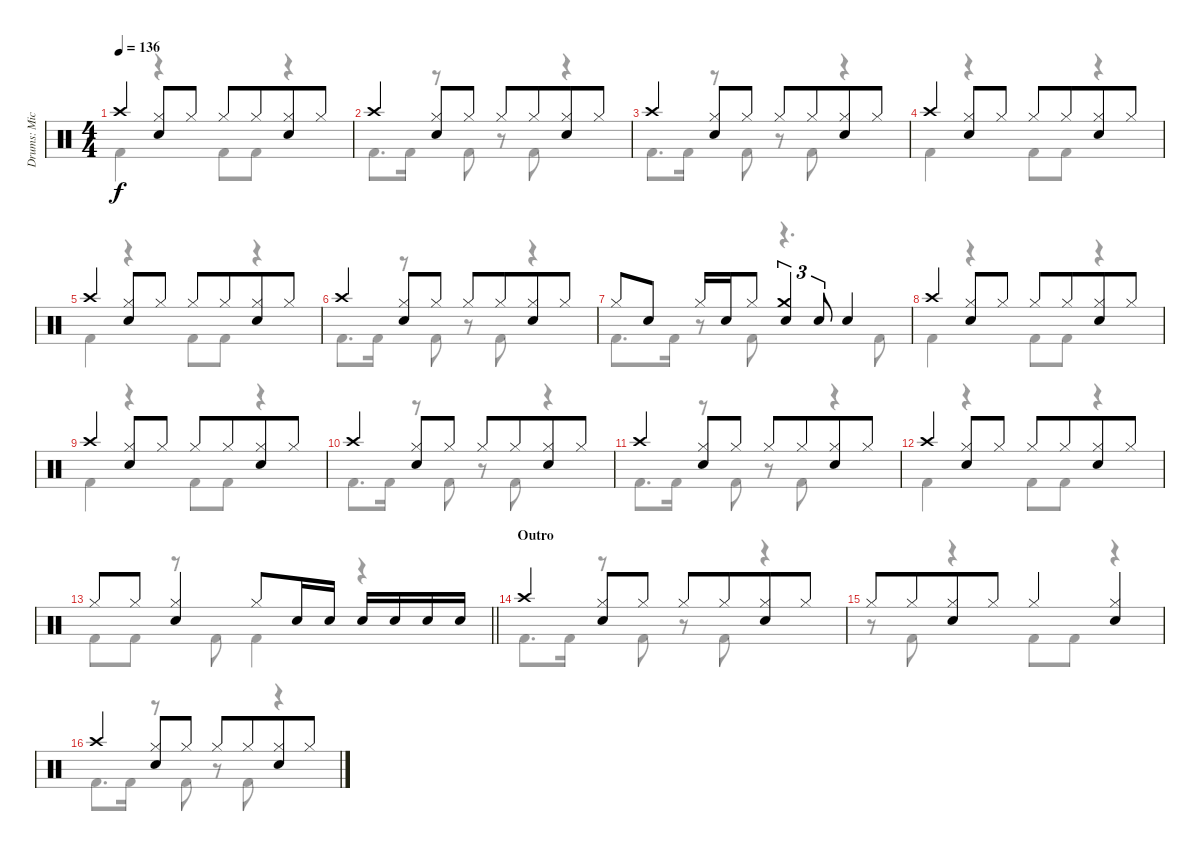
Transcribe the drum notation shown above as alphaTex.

\track ("Drums: Mick" "Drums: Mic") {instrument percussion}
\staff {score}
\articulation defaults
\voice
\ts (4 4)
\tempo 136
\clef neutral
\ks c "Crash high (hit)".4{dy f}
("Hi-Hat (closed)" "Snare (hit) 2").8 "Hi-Hat (closed)".8 "Hi-Hat (closed)".8 "Hi-Hat (closed)".8{beam merge} ("Hi-Hat (closed)" "Snare (hit) 2").8 "Hi-Hat (closed)".8 |
"Crash high (hit)".4 ("Hi-Hat (closed)" "Snare (hit) 2").8 "Hi-Hat (closed)".8 "Hi-Hat (closed)".8 "Hi-Hat (closed)".8{beam merge} ("Hi-Hat (closed)" "Snare (hit) 2").8 "Hi-Hat (closed)".8 |
"Crash high (hit)".4 ("Hi-Hat (closed)" "Snare (hit) 2").8 "Hi-Hat (closed)".8 "Hi-Hat (closed)".8 "Hi-Hat (closed)".8{beam merge} ("Hi-Hat (closed)" "Snare (hit) 2").8 "Hi-Hat (closed)".8 |
"Crash high (hit)".4 ("Hi-Hat (closed)" "Snare (hit) 2").8 "Hi-Hat (closed)".8 "Hi-Hat (closed)".8 "Hi-Hat (closed)".8{beam merge} ("Hi-Hat (closed)" "Snare (hit) 2").8 "Hi-Hat (closed)".8 |
"Crash high (hit)".4 ("Hi-Hat (closed)" "Snare (hit) 2").8 "Hi-Hat (closed)".8 "Hi-Hat (closed)".8 "Hi-Hat (closed)".8{beam merge} ("Hi-Hat (closed)" "Snare (hit) 2").8 "Hi-Hat (closed)".8 |
"Crash high (hit)".4 ("Hi-Hat (closed)" "Snare (hit) 2").8 "Hi-Hat (closed)".8 "Hi-Hat (closed)".8 "Hi-Hat (closed)".8{beam merge} ("Hi-Hat (closed)" "Snare (hit) 2").8 "Hi-Hat (closed)".8 |
"Hi-Hat (closed)".8 "Snare (hit) 2".8 "Hi-Hat (closed)".16{beam merge} "Snare (hit) 2".16 "Hi-Hat (closed)".8 ("Crash medium (hit)" "Snare (hit) 2").4{tu (3 2)} "Snare (hit) 2".8{tu (3 2)} "Snare (hit) 2".4 |
"Crash high (hit)".4 ("Hi-Hat (closed)" "Snare (hit) 2").8 "Hi-Hat (closed)".8 "Hi-Hat (closed)".8 "Hi-Hat (closed)".8{beam merge} ("Hi-Hat (closed)" "Snare (hit) 2").8 "Hi-Hat (closed)".8 |
"Crash high (hit)".4 ("Hi-Hat (closed)" "Snare (hit) 2").8 "Hi-Hat (closed)".8 "Hi-Hat (closed)".8 "Hi-Hat (closed)".8{beam merge} ("Hi-Hat (closed)" "Snare (hit) 2").8 "Hi-Hat (closed)".8 |
"Crash high (hit)".4 ("Hi-Hat (closed)" "Snare (hit) 2").8 "Hi-Hat (closed)".8 "Hi-Hat (closed)".8 "Hi-Hat (closed)".8{beam merge} ("Hi-Hat (closed)" "Snare (hit) 2").8 "Hi-Hat (closed)".8 |
"Crash high (hit)".4 ("Hi-Hat (closed)" "Snare (hit) 2").8 "Hi-Hat (closed)".8 "Hi-Hat (closed)".8 "Hi-Hat (closed)".8{beam merge} ("Hi-Hat (closed)" "Snare (hit) 2").8 "Hi-Hat (closed)".8 |
"Crash high (hit)".4 ("Hi-Hat (closed)" "Snare (hit) 2").8 "Hi-Hat (closed)".8 "Hi-Hat (closed)".8 "Hi-Hat (closed)".8{beam merge} ("Hi-Hat (closed)" "Snare (hit) 2").8 "Hi-Hat (closed)".8 |
\barLineRight lightlight "Hi-Hat (closed)".8 "Hi-Hat (closed)".8
("Hi-Hat (closed)" "Snare (hit) 2").4 "Hi-Hat (closed)".8 "Snare (hit) 2".16 "Snare (hit) 2".16 "Snare (hit) 2".16 "Snare (hit) 2".16 "Snare (hit) 2".16 "Snare (hit) 2".16 |
\section ("" "Outro")
"Crash high (hit)".4 ("Hi-Hat (closed)" "Snare (hit) 2").8 "Hi-Hat (closed)".8 "Hi-Hat (closed)".8 "Hi-Hat (closed)".8{beam merge} ("Hi-Hat (closed)" "Snare (hit) 2").8 "Hi-Hat (closed)".8 |
"Hi-Hat (closed)".8 "Hi-Hat (closed)".8{beam merge} ("Hi-Hat (closed)" "Snare (hit) 2").8 "Hi-Hat (closed)".8 "Hi-Hat (closed)".4{beam merge} ("Hi-Hat (closed)" "Snare (hit) 2").4 |
"Crash high (hit)".4 ("Hi-Hat (closed)" "Snare (hit) 2").8 "Hi-Hat (closed)".8 "Hi-Hat (closed)".8 "Hi-Hat (closed)".8{beam merge} ("Hi-Hat (closed)" "Snare (hit) 2").8 "Hi-Hat (closed)".8
\voice
\clef neutral
\ottava regular
\simile none
\ks c "Kick (hit) 2".4{dy f}
r.4 "Kick (hit) 2".8 "Kick (hit) 2".8 r.4 |
"Kick (hit) 2".8{d} "Kick (hit) 2".16 r.8 "Kick (hit) 2".8 r.8 "Kick (hit) 2".8 r.4 |
"Kick (hit) 2".8{d} "Kick (hit) 2".16 r.8 "Kick (hit) 2".8 r.8 "Kick (hit) 2".8 r.4 |
"Kick (hit) 2".4 r.4 "Kick (hit) 2".8 "Kick (hit) 2".8 r.4 |
"Kick (hit) 2".4 r.4 "Kick (hit) 2".8 "Kick (hit) 2".8 r.4 |
"Kick (hit) 2".8{d} "Kick (hit) 2".16 r.8 "Kick (hit) 2".8 r.8 "Kick (hit) 2".8 r.4 |
"Kick (hit) 2".8{d} "Kick (hit) 2".16 r.8 "Kick (hit) 2".8 r.4{d} "Kick (hit) 2".8 |
"Kick (hit) 2".4 r.4 "Kick (hit) 2".8 "Kick (hit) 2".8 r.4 |
"Kick (hit) 2".4 r.4 "Kick (hit) 2".8 "Kick (hit) 2".8 r.4 |
"Kick (hit) 2".8{d} "Kick (hit) 2".16 r.8 "Kick (hit) 2".8 r.8 "Kick (hit) 2".8 r.4 |
"Kick (hit) 2".8{d} "Kick (hit) 2".16 r.8 "Kick (hit) 2".8 r.8 "Kick (hit) 2".8 r.4 |
"Kick (hit) 2".4 r.4 "Kick (hit) 2".8 "Kick (hit) 2".8 r.4 |
\barLineRight lightlight "Kick (hit) 2".8 "Kick (hit) 2".8
r.8 "Kick (hit) 2".8 "Kick (hit) 2".4 r.4 |
"Kick (hit) 2".8{d} "Kick (hit) 2".16 r.8 "Kick (hit) 2".8 r.8 "Kick (hit) 2".8 r.4 |
r.8 "Kick (hit) 2".8 r.4 "Kick (hit) 2".8 "Kick (hit) 2".8 r.4 |
"Kick (hit) 2".8{d} "Kick (hit) 2".16 r.8 "Kick (hit) 2".8 r.8 "Kick (hit) 2".8 r.4
